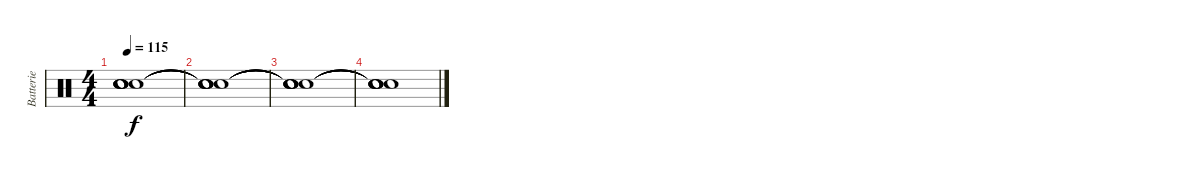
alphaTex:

\track ("Batterie" "Batterie") {instrument percussion}
\staff {score}
\articulation defaults
\ts (4 4)
\tempo 115
\clef neutral
\ks c
("Snare (hit)"{t} "Snare (hit)"{t} "Snare (hit)"{t} "Snare (hit)"{t} "Snare (hit)"{t}).1{dy f} |
("Snare (hit)"{t} "Snare (hit)"{t} "Snare (hit)"{t} "Snare (hit)"{t} "Snare (hit)"{t}).1 |
("Snare (hit)"{t} "Snare (hit)"{t} "Snare (hit)"{t} "Snare (hit)"{t} "Snare (hit)"{t}).1 |
("Snare (hit)"{t} "Snare (hit)"{t} "Snare (hit)"{t} "Snare (hit)"{t} "Snare (hit)"{t}).1
